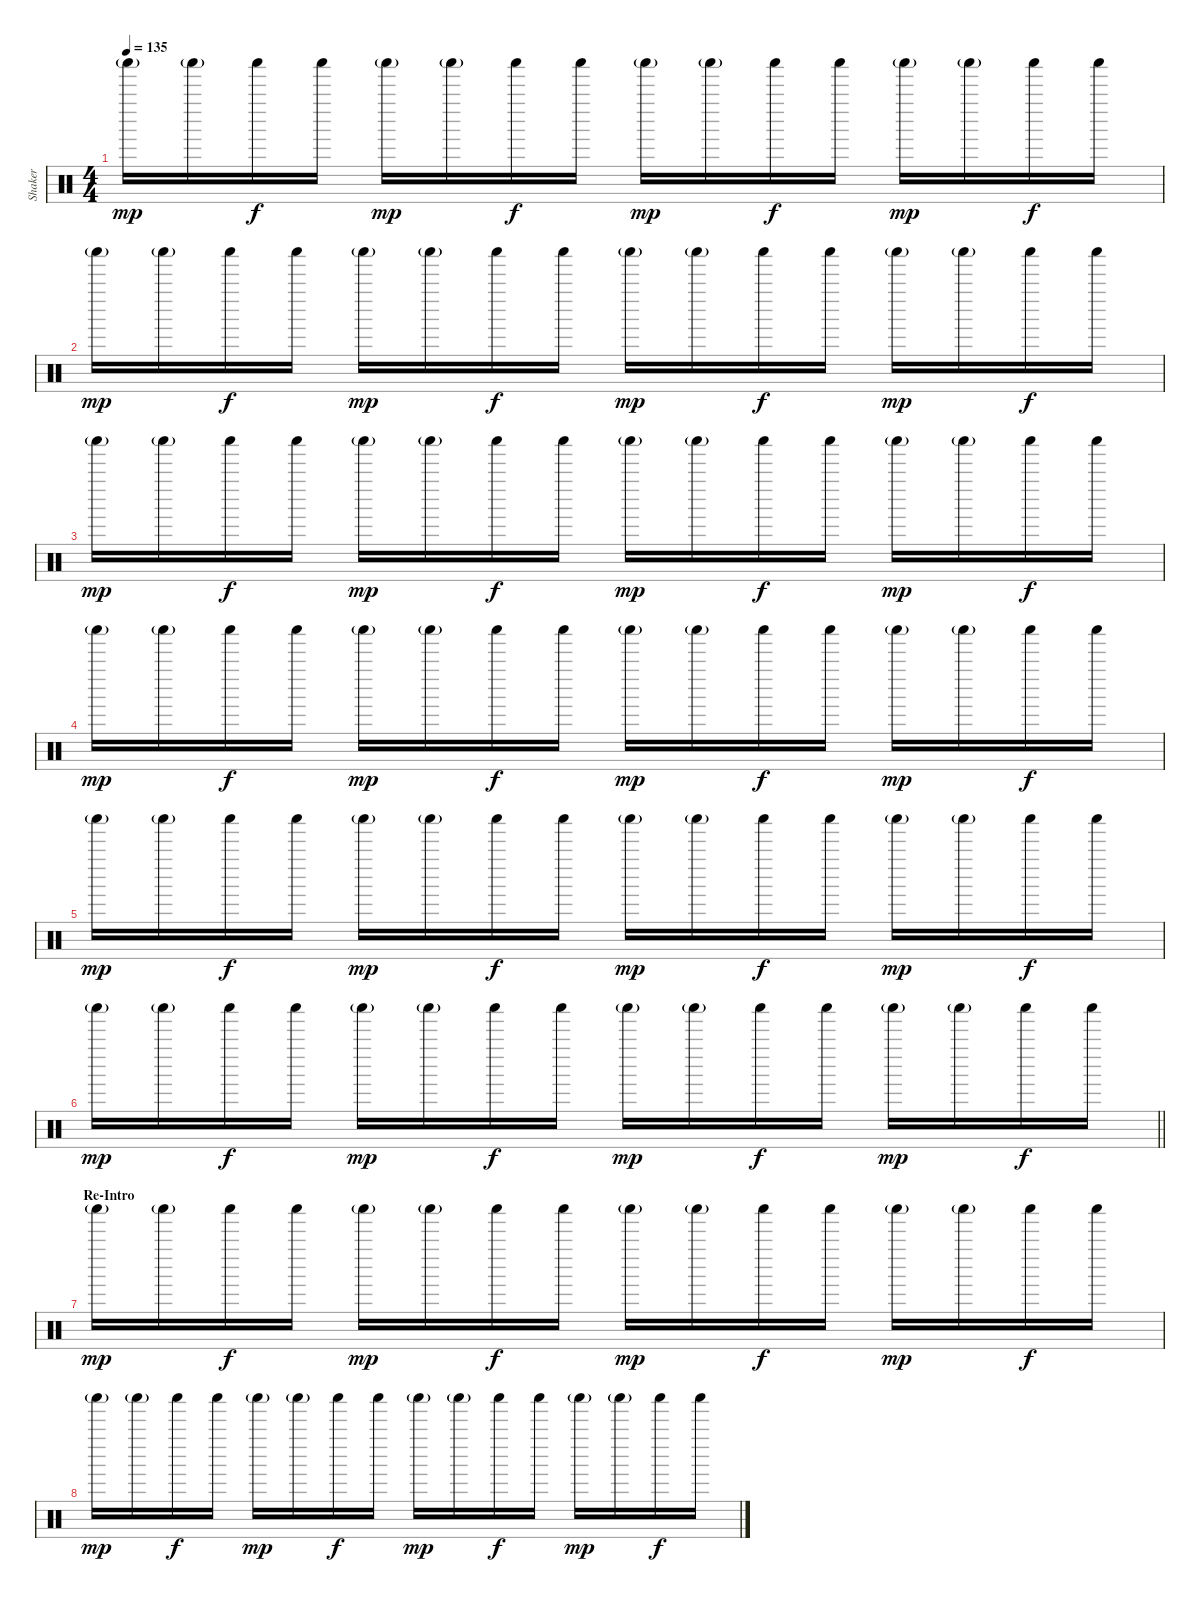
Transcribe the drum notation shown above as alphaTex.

\track ("Shaker" "Shaker") {instrument percussion}
\staff {score}
\articulation defaults
\ts (4 4)
\tempo 135
\clef neutral
\ks c "Shaker (hit)"{g}.16{dy mp} "Shaker (hit)"{g}.16 "Shaker (hit)".16{dy f} "Shaker (hit)".16 "Shaker (hit)"{g}.16{dy mp} "Shaker (hit)"{g}.16 "Shaker (hit)".16{dy f} "Shaker (hit)".16 "Shaker (hit)"{g}.16{dy mp} "Shaker (hit)"{g}.16 "Shaker (hit)".16{dy f} "Shaker (hit)".16 "Shaker (hit)"{g}.16{dy mp} "Shaker (hit)"{g}.16 "Shaker (hit)".16{dy f} "Shaker (hit)".16
|
"Shaker (hit)"{g}.16{dy mp} "Shaker (hit)"{g}.16 "Shaker (hit)".16{dy f} "Shaker (hit)".16 "Shaker (hit)"{g}.16{dy mp} "Shaker (hit)"{g}.16 "Shaker (hit)".16{dy f} "Shaker (hit)".16 "Shaker (hit)"{g}.16{dy mp} "Shaker (hit)"{g}.16 "Shaker (hit)".16{dy f} "Shaker (hit)".16 "Shaker (hit)"{g}.16{dy mp} "Shaker (hit)"{g}.16 "Shaker (hit)".16{dy f} "Shaker (hit)".16 |
"Shaker (hit)"{g}.16{dy mp} "Shaker (hit)"{g}.16 "Shaker (hit)".16{dy f} "Shaker (hit)".16 "Shaker (hit)"{g}.16{dy mp} "Shaker (hit)"{g}.16 "Shaker (hit)".16{dy f} "Shaker (hit)".16 "Shaker (hit)"{g}.16{dy mp} "Shaker (hit)"{g}.16 "Shaker (hit)".16{dy f} "Shaker (hit)".16 "Shaker (hit)"{g}.16{dy mp} "Shaker (hit)"{g}.16 "Shaker (hit)".16{dy f} "Shaker (hit)".16 |
"Shaker (hit)"{g}.16{dy mp} "Shaker (hit)"{g}.16 "Shaker (hit)".16{dy f} "Shaker (hit)".16 "Shaker (hit)"{g}.16{dy mp} "Shaker (hit)"{g}.16 "Shaker (hit)".16{dy f} "Shaker (hit)".16 "Shaker (hit)"{g}.16{dy mp} "Shaker (hit)"{g}.16 "Shaker (hit)".16{dy f} "Shaker (hit)".16 "Shaker (hit)"{g}.16{dy mp} "Shaker (hit)"{g}.16 "Shaker (hit)".16{dy f} "Shaker (hit)".16 |
"Shaker (hit)"{g}.16{dy mp} "Shaker (hit)"{g}.16 "Shaker (hit)".16{dy f} "Shaker (hit)".16 "Shaker (hit)"{g}.16{dy mp} "Shaker (hit)"{g}.16 "Shaker (hit)".16{dy f} "Shaker (hit)".16 "Shaker (hit)"{g}.16{dy mp} "Shaker (hit)"{g}.16 "Shaker (hit)".16{dy f} "Shaker (hit)".16 "Shaker (hit)"{g}.16{dy mp} "Shaker (hit)"{g}.16 "Shaker (hit)".16{dy f} "Shaker (hit)".16 |
\barLineRight lightlight "Shaker (hit)"{g}.16{dy mp} "Shaker (hit)"{g}.16 "Shaker (hit)".16{dy f} "Shaker (hit)".16 "Shaker (hit)"{g}.16{dy mp} "Shaker (hit)"{g}.16 "Shaker (hit)".16{dy f} "Shaker (hit)".16 "Shaker (hit)"{g}.16{dy mp} "Shaker (hit)"{g}.16 "Shaker (hit)".16{dy f} "Shaker (hit)".16 "Shaker (hit)"{g}.16{dy mp} "Shaker (hit)"{g}.16 "Shaker (hit)".16{dy f} "Shaker (hit)".16
|
\section ("" "Re-Intro")
"Shaker (hit)"{g}.16{dy mp} "Shaker (hit)"{g}.16 "Shaker (hit)".16{dy f} "Shaker (hit)".16 "Shaker (hit)"{g}.16{dy mp} "Shaker (hit)"{g}.16 "Shaker (hit)".16{dy f} "Shaker (hit)".16 "Shaker (hit)"{g}.16{dy mp} "Shaker (hit)"{g}.16 "Shaker (hit)".16{dy f} "Shaker (hit)".16 "Shaker (hit)"{g}.16{dy mp} "Shaker (hit)"{g}.16 "Shaker (hit)".16{dy f} "Shaker (hit)".16 |
"Shaker (hit)"{g}.16{dy mp} "Shaker (hit)"{g}.16 "Shaker (hit)".16{dy f} "Shaker (hit)".16 "Shaker (hit)"{g}.16{dy mp} "Shaker (hit)"{g}.16 "Shaker (hit)".16{dy f} "Shaker (hit)".16 "Shaker (hit)"{g}.16{dy mp} "Shaker (hit)"{g}.16 "Shaker (hit)".16{dy f} "Shaker (hit)".16 "Shaker (hit)"{g}.16{dy mp} "Shaker (hit)"{g}.16 "Shaker (hit)".16{dy f} "Shaker (hit)".16
